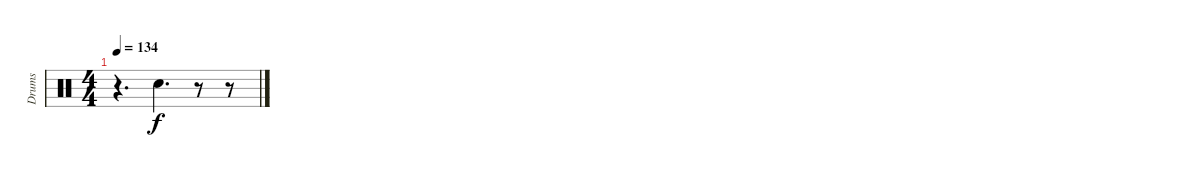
\track ("Drums" "Drums") {instrument percussion}
\staff {score}
\articulation defaults
\ts (4 4)
\tempo 134
\clef neutral
\ks c
r.4{d dy f} "Electric Snare (hit)".4{d} r.8 r.8
